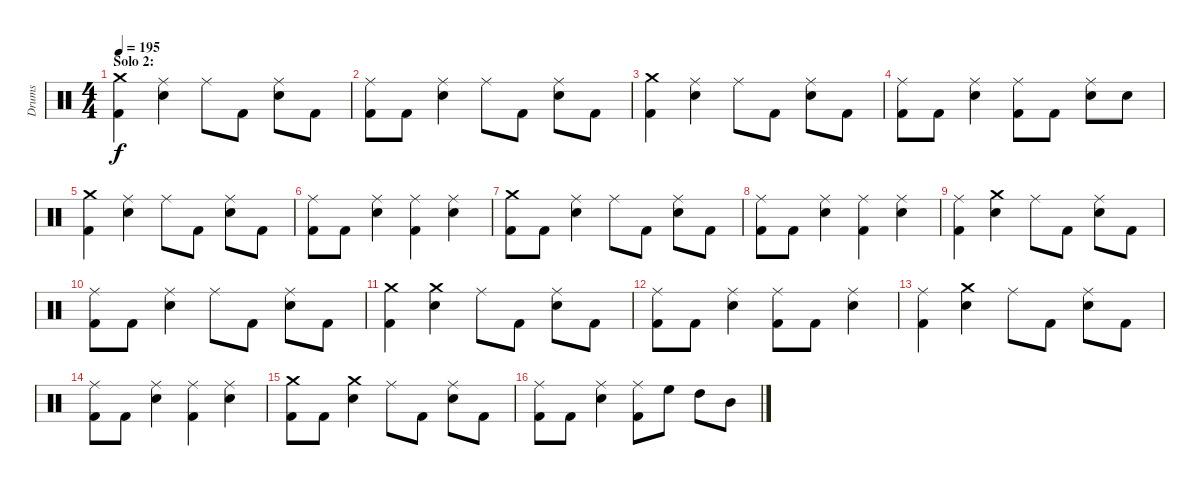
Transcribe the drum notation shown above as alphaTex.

\track ("Drums" "Drums") {instrument percussion}
\staff {score}
\articulation defaults
\ts (4 4)
\section ("" "Solo 2:")
\tempo 195
\clef neutral
\ks c
("Crash medium (hit)" "Kick (hit) 2").4{dy f} ("Ride (middle)" "Electric Snare (hit)").4 "Ride (middle)".8 "Kick (hit) 2".8 ("Ride (middle)" "Electric Snare (hit)").8 "Kick (hit) 2".8 |
("Ride (middle)" "Kick (hit) 2").8 "Kick (hit) 2".8 ("Ride (middle)" "Electric Snare (hit)").4 "Ride (middle)".8 "Kick (hit) 2".8 ("Ride (middle)" "Electric Snare (hit)").8 "Kick (hit) 2".8 |
("Crash medium (hit)" "Kick (hit) 2").4 ("Ride (middle)" "Electric Snare (hit)").4 "Ride (middle)".8 "Kick (hit) 2".8 ("Ride (middle)" "Electric Snare (hit)").8 "Kick (hit) 2".8 |
("Ride (middle)" "Kick (hit) 2").8 "Kick (hit) 2".8 ("Ride (middle)" "Electric Snare (hit)").4 ("Ride (middle)" "Kick (hit) 2").8 "Kick (hit) 2".8 ("Ride (middle)" "Electric Snare (hit)").8 "Electric Snare (hit)".8 |
("Crash medium (hit)" "Kick (hit) 2").4 ("Ride (middle)" "Electric Snare (hit)").4 "Ride (middle)".8 "Kick (hit) 2".8 ("Ride (middle)" "Electric Snare (hit)").8 "Kick (hit) 2".8 |
("Ride (middle)" "Kick (hit) 2").8 "Kick (hit) 2".8 ("Ride (middle)" "Electric Snare (hit)").4 ("Ride (middle)" "Kick (hit) 2").4 ("Ride (middle)" "Electric Snare (hit)").4 |
("Crash medium (hit)" "Kick (hit) 2").8 "Kick (hit) 2".8 ("Ride (middle)" "Electric Snare (hit)").4 "Ride (middle)".8 "Kick (hit) 2".8 ("Ride (middle)" "Electric Snare (hit)").8 "Kick (hit) 2".8 |
("Ride (middle)" "Kick (hit) 2").8 "Kick (hit) 2".8 ("Ride (middle)" "Electric Snare (hit)").4 ("Ride (middle)" "Kick (hit) 2").4 ("Ride (middle)" "Electric Snare (hit)").4 |
("Ride (middle)" "Kick (hit) 2").4 ("Crash medium (hit)" "Electric Snare (hit)").4 "Ride (middle)".8 "Kick (hit) 2".8 ("Ride (middle)" "Electric Snare (hit)").8 "Kick (hit) 2".8 |
("Ride (middle)" "Kick (hit) 2").8 "Kick (hit) 2".8 ("Ride (middle)" "Electric Snare (hit)").4 "Ride (middle)".8 "Kick (hit) 2".8 ("Ride (middle)" "Electric Snare (hit)").8 "Kick (hit) 2".8 |
("Crash medium (hit)" "Kick (hit) 2").4 ("Crash medium (hit)" "Electric Snare (hit)").4 "Ride (middle)".8 "Kick (hit) 2".8 ("Ride (middle)" "Electric Snare (hit)").8 "Kick (hit) 2".8 |
("Ride (middle)" "Kick (hit) 2").8 "Kick (hit) 2".8 ("Ride (middle)" "Electric Snare (hit)").4 ("Ride (middle)" "Kick (hit) 2").8 "Kick (hit) 2".8 ("Ride (middle)" "Electric Snare (hit)").4 |
("Ride (middle)" "Kick (hit) 2").4 ("Crash medium (hit)" "Electric Snare (hit)").4 "Ride (middle)".8 "Kick (hit) 2".8 ("Ride (middle)" "Electric Snare (hit)").8 "Kick (hit) 2".8 |
("Ride (middle)" "Kick (hit) 2").8 "Kick (hit) 2".8 ("Ride (middle)" "Electric Snare (hit)").4 ("Ride (middle)" "Kick (hit) 2").4 ("Ride (middle)" "Electric Snare (hit)").4 |
("Crash medium (hit)" "Kick (hit) 2").8 "Kick (hit) 2".8 ("Crash medium (hit)" "Electric Snare (hit)").4 "Ride (middle)".8 "Kick (hit) 2".8 ("Ride (middle)" "Electric Snare (hit)").8 "Kick (hit) 2".8 |
("Ride (middle)" "Kick (hit) 2").8 "Kick (hit) 2".8 ("Ride (middle)" "Electric Snare (hit)").4 ("Ride (middle)" "Kick (hit) 2").8 "High Floor Tom (hit)".8 "High Tom (hit)".8 "Mid Tom (hit)".8
